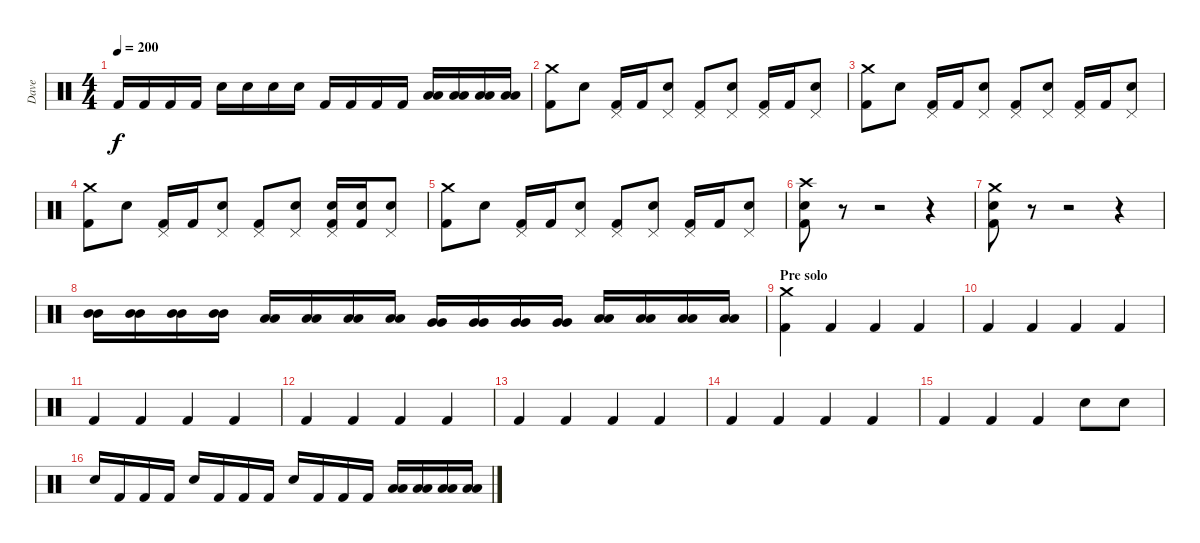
\track ("Dave" "Dave") {instrument percussion}
\staff {score}
\articulation defaults
\ts (4 4)
\tempo 200
\clef neutral
\ks c "Kick (hit) 2".16{dy f} "Kick (hit) 2".16 "Kick (hit) 2".16 "Kick (hit) 2".16 "Snare (hit) 2".16 "Snare (hit) 2".16 "Snare (hit) 2".16 "Snare (hit) 2".16 "Kick (hit) 2".16 "Kick (hit) 2".16 "Kick (hit) 2".16 "Kick (hit) 2".16
("Low Floor Tom (hit)" "Low Floor Tom (hit)").16 ("Low Floor Tom (hit)" "Low Floor Tom (hit)").16 ("Low Floor Tom (hit)" "Low Floor Tom (hit)").16 ("Low Floor Tom (hit)" "Low Floor Tom (hit)").16 |
("Crash medium (hit)" "Kick (hit) 2").8 "Snare (hit) 2".8 ("Pedal Hi-Hat (hit)" "Kick (hit) 2").16 "Kick (hit) 2".16 ("Pedal Hi-Hat (hit)" "Snare (hit) 2").8 ("Pedal Hi-Hat (hit)" "Kick (hit) 2").8 ("Pedal Hi-Hat (hit)" "Snare (hit) 2").8 ("Pedal Hi-Hat (hit)" "Kick (hit) 2").16 "Kick (hit) 2".16 ("Pedal Hi-Hat (hit)" "Snare (hit) 2").8 |
("Crash medium (hit)" "Kick (hit) 2").8 "Snare (hit) 2".8 ("Pedal Hi-Hat (hit)" "Kick (hit) 2").16 "Kick (hit) 2".16 ("Pedal Hi-Hat (hit)" "Snare (hit) 2").8 ("Pedal Hi-Hat (hit)" "Kick (hit) 2").8 ("Pedal Hi-Hat (hit)" "Snare (hit) 2").8 ("Pedal Hi-Hat (hit)" "Kick (hit) 2").16 "Kick (hit) 2".16 ("Pedal Hi-Hat (hit)" "Snare (hit) 2").8 |
("Crash medium (hit)" "Kick (hit) 2").8 "Snare (hit) 2".8 ("Pedal Hi-Hat (hit)" "Kick (hit) 2").16 "Kick (hit) 2".16 ("Pedal Hi-Hat (hit)" "Snare (hit) 2").8 ("Pedal Hi-Hat (hit)" "Kick (hit) 2").8 ("Pedal Hi-Hat (hit)" "Snare (hit) 2").8 ("Pedal Hi-Hat (hit)" "Snare (hit) 2" "Kick (hit) 2").16 ("Snare (hit) 2" "Kick (hit) 2").16 ("Pedal Hi-Hat (hit)" "Snare (hit) 2").8 |
("Crash medium (hit)" "Kick (hit) 2").8 "Snare (hit) 2".8 ("Pedal Hi-Hat (hit)" "Kick (hit) 2").16 "Kick (hit) 2".16 ("Pedal Hi-Hat (hit)" "Snare (hit) 2").8 ("Pedal Hi-Hat (hit)" "Kick (hit) 2").8 ("Pedal Hi-Hat (hit)" "Snare (hit) 2").8 ("Pedal Hi-Hat (hit)" "Kick (hit) 2").16 "Kick (hit) 2".16 ("Pedal Hi-Hat (hit)" "Snare (hit) 2").8 |
("Crash high (hit)" "Snare (hit) 2" "Kick (hit) 2").8 r.8 r.2 r.4 |
("Crash medium (hit)" "Snare (hit) 2" "Kick (hit) 2").8 r.8 r.2 r.4 |
("Mid Tom (hit)" "Mid Tom (hit)").16 ("Mid Tom (hit)" "Mid Tom (hit)").16 ("Mid Tom (hit)" "Mid Tom (hit)").16 ("Mid Tom (hit)" "Mid Tom (hit)").16 ("Low Tom (hit)" "Low Tom (hit)").16 ("Low Tom (hit)" "Low Tom (hit)").16 ("Low Tom (hit)" "Low Tom (hit)").16 ("Low Tom (hit)" "Low Tom (hit)").16 ("Very Low Tom (hit)" "Very Low Tom (hit)").16 ("Very Low Tom (hit)" "Very Low Tom (hit)").16 ("Very Low Tom (hit)" "Very Low Tom (hit)").16 ("Very Low Tom (hit)" "Very Low Tom (hit)").16 ("Low Floor Tom (hit)" "Low Floor Tom (hit)").16 ("Low Floor Tom (hit)" "Low Floor Tom (hit)").16 ("Low Floor Tom (hit)" "Low Floor Tom (hit)").16 ("Low Floor Tom (hit)" "Low Floor Tom (hit)").16 |
\section ("" "Pre solo")
("Crash medium (hit)" "Kick (hit) 2").4 "Kick (hit) 2".4 "Kick (hit) 2".4 "Kick (hit) 2".4 |
"Kick (hit) 2".4 "Kick (hit) 2".4 "Kick (hit) 2".4 "Kick (hit) 2".4 |
"Kick (hit) 2".4 "Kick (hit) 2".4 "Kick (hit) 2".4 "Kick (hit) 2".4 |
"Kick (hit) 2".4 "Kick (hit) 2".4 "Kick (hit) 2".4 "Kick (hit) 2".4 |
"Kick (hit) 2".4 "Kick (hit) 2".4 "Kick (hit) 2".4 "Kick (hit) 2".4 |
"Kick (hit) 2".4 "Kick (hit) 2".4 "Kick (hit) 2".4 "Kick (hit) 2".4 |
"Kick (hit) 2".4 "Kick (hit) 2".4 "Kick (hit) 2".4 "Snare (hit) 2".8 "Snare (hit) 2".8 |
"Snare (hit) 2".16 "Kick (hit) 2".16 "Kick (hit) 2".16 "Kick (hit) 2".16 "Snare (hit) 2".16 "Kick (hit) 2".16 "Kick (hit) 2".16 "Kick (hit) 2".16 "Snare (hit) 2".16 "Kick (hit) 2".16 "Kick (hit) 2".16 "Kick (hit) 2".16 ("Low Floor Tom (hit)" "Low Floor Tom (hit)").16 ("Low Floor Tom (hit)" "Low Floor Tom (hit)").16 ("Low Floor Tom (hit)" "Low Floor Tom (hit)").16 ("Low Floor Tom (hit)" "Low Floor Tom (hit)").16
